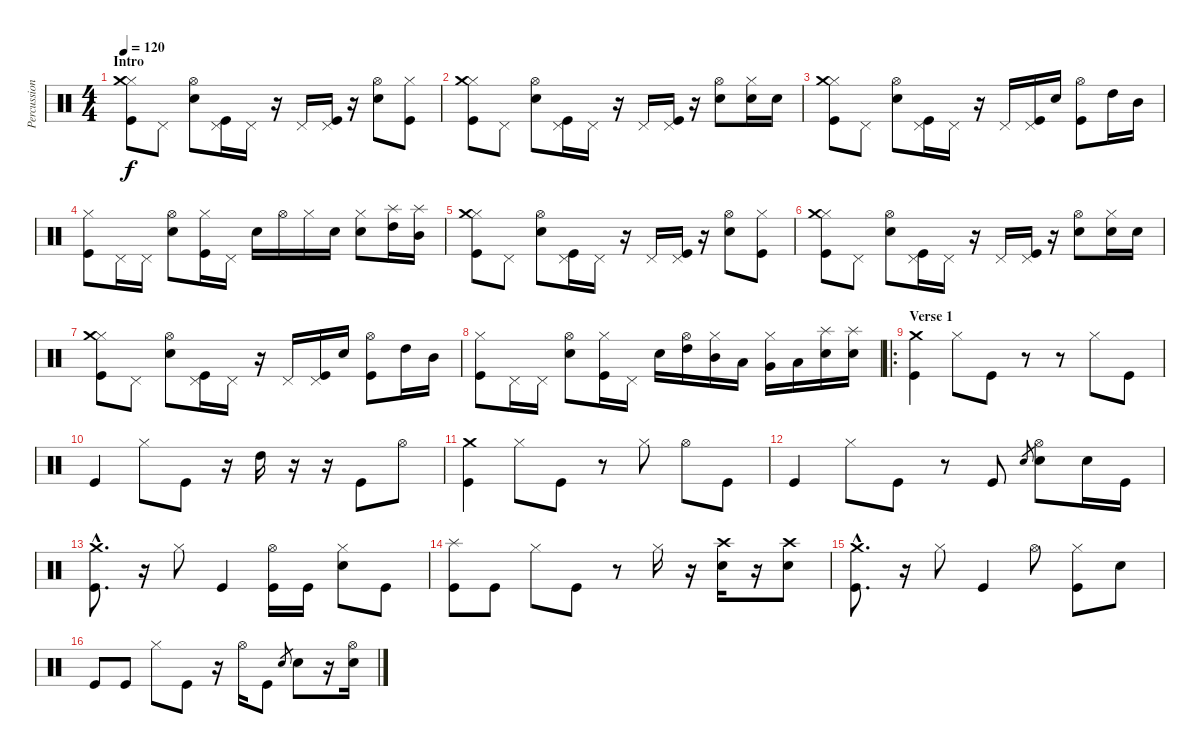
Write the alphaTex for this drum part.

\track ("Percussions" "Percussion") {instrument percussion}
\staff {score}
\articulation defaults
\ts (4 4)
\section ("" "Intro")
\tempo 120
\clef neutral
\ks c
("Hi-Hat (closed)" "Crash medium (hit)" "Kick (hit)").8{dy f} "Pedal Hi-Hat (hit)".8 ("Hi-Hat (open)" "Electric Snare (hit)").8 ("Pedal Hi-Hat (hit)" "Kick (hit)").16 "Pedal Hi-Hat (hit)".16 r.16 "Pedal Hi-Hat (hit)".16 ("Pedal Hi-Hat (hit)" "Kick (hit)").16 r.16 ("Hi-Hat (open)" "Electric Snare (hit)").8 ("Hi-Hat (closed)" "Kick (hit)").8 |
("Hi-Hat (closed)" "Crash medium (hit)" "Kick (hit)").8 "Pedal Hi-Hat (hit)".8 ("Hi-Hat (open)" "Electric Snare (hit)").8 ("Pedal Hi-Hat (hit)" "Kick (hit)").16 "Pedal Hi-Hat (hit)".16 r.16 "Pedal Hi-Hat (hit)".16 ("Pedal Hi-Hat (hit)" "Kick (hit)").16 r.16 ("Hi-Hat (open)" "Electric Snare (hit)").8 ("Hi-Hat (closed)" "Electric Snare (hit)").16 "Electric Snare (hit)".16 |
("Hi-Hat (closed)" "Crash medium (hit)" "Kick (hit)").8 "Pedal Hi-Hat (hit)".8 ("Hi-Hat (open)" "Electric Snare (hit)").8 ("Pedal Hi-Hat (hit)" "Kick (hit)").16 "Pedal Hi-Hat (hit)".16 r.16 "Pedal Hi-Hat (hit)".16 ("Pedal Hi-Hat (hit)" "Kick (hit)").16 "Electric Snare (hit)".16 ("Hi-Hat (open)" "Kick (hit)").8 "High Tom (hit)".16 "Mid Tom (hit)".16 |
("Hi-Hat (closed)" "Kick (hit)").8 "Pedal Hi-Hat (hit)".16 "Pedal Hi-Hat (hit)".16 ("Hi-Hat (open)" "Electric Snare (hit)").8 ("Hi-Hat (closed)" "Kick (hit)").16 "Pedal Hi-Hat (hit)".16 "Electric Snare (hit)".16 "Hi-Hat (open)".16 "Hi-Hat (closed)".16 "Electric Snare (hit)".16 ("Hi-Hat (closed)" "Electric Snare (hit)").8 ("Splash (hit)" "High Tom (hit)").16 ("Splash (hit)" "Mid Tom (hit)").16 |
("Hi-Hat (closed)" "Crash medium (hit)" "Kick (hit)").8 "Pedal Hi-Hat (hit)".8 ("Hi-Hat (open)" "Electric Snare (hit)").8 ("Pedal Hi-Hat (hit)" "Kick (hit)").16 "Pedal Hi-Hat (hit)".16 r.16 "Pedal Hi-Hat (hit)".16 ("Pedal Hi-Hat (hit)" "Kick (hit)").16 r.16 ("Hi-Hat (open)" "Electric Snare (hit)").8 ("Hi-Hat (closed)" "Kick (hit)").8 |
("Hi-Hat (closed)" "Crash medium (hit)" "Kick (hit)").8 "Pedal Hi-Hat (hit)".8 ("Hi-Hat (open)" "Electric Snare (hit)").8 ("Pedal Hi-Hat (hit)" "Kick (hit)").16 "Pedal Hi-Hat (hit)".16 r.16 "Pedal Hi-Hat (hit)".16 ("Pedal Hi-Hat (hit)" "Kick (hit)").16 r.16 ("Hi-Hat (open)" "Electric Snare (hit)").8 ("Hi-Hat (closed)" "Electric Snare (hit)").16 "Electric Snare (hit)".16 |
("Hi-Hat (closed)" "Crash medium (hit)" "Kick (hit)").8 "Pedal Hi-Hat (hit)".8 ("Hi-Hat (open)" "Electric Snare (hit)").8 ("Pedal Hi-Hat (hit)" "Kick (hit)").16 "Pedal Hi-Hat (hit)".16 r.16 "Pedal Hi-Hat (hit)".16 ("Pedal Hi-Hat (hit)" "Kick (hit)").16 "Electric Snare (hit)".16 ("Hi-Hat (open)" "Kick (hit)").8 "High Tom (hit)".16 "Mid Tom (hit)".16 |
("Hi-Hat (closed)" "Kick (hit)").8 "Pedal Hi-Hat (hit)".16 "Pedal Hi-Hat (hit)".16 ("Hi-Hat (open)" "Electric Snare (hit)").8 ("Hi-Hat (closed)" "Kick (hit)").16 "Pedal Hi-Hat (hit)".16 "Electric Snare (hit)".16 ("Hi-Hat (open)" "High Tom (hit)").16 ("Hi-Hat (closed)" "Mid Tom (hit)").16 "Low Tom (hit)".16 ("Hi-Hat (closed)" "Very Low Tom (hit)").16 "Low Floor Tom (hit)".16 ("Splash (hit)" "Electric Snare (hit)").16 ("Splash (hit)" "Electric Snare (hit)").16 |
\ro
\section ("" "Verse 1")
("Crash medium (hit)" "Kick (hit)").4 "Hi-Hat (closed)".8 "Kick (hit)".8 r.8 r.8 "Hi-Hat (closed)".8 "Kick (hit)".8 |
"Kick (hit)".4 "Hi-Hat (closed)".8 "Kick (hit)".8 r.16 "High Tom (hit)".16 r.16 r.16 "Kick (hit)".8 "Hi-Hat (open)".8 |
("Crash medium (hit)" "Kick (hit)").4 "Hi-Hat (closed)".8 "Kick (hit)".8 r.8 "Hi-Hat (closed)".8 "Hi-Hat (open)".8 "Kick (hit)".8 |
"Kick (hit)".4 "Hi-Hat (closed)".8 "Kick (hit)".8 r.8 "Kick (hit)".8 "Electric Snare (hit)".8{gr} ("Hi-Hat (open)" "Electric Snare (hit)").8 "Electric Snare (hit)".16 "Kick (hit)".16 |
("Crash medium (hit)"{hac} "Kick (hit)"{hac}).8{d} r.16 "Hi-Hat (closed)".8 "Kick (hit)".4 ("Hi-Hat (open)" "Kick (hit)").16 "Kick (hit)".16 ("Hi-Hat (closed)" "Electric Snare (hit)").8 "Kick (hit)".8 |
("Splash (hit)" "Kick (hit)").8 "Kick (hit)".8 "Hi-Hat (closed)".8 "Kick (hit)".8 r.8 "Hi-Hat (closed)".16 r.16 ("Crash high (hit)" "Electric Snare (hit)").16 r.16 ("Crash high (hit)" "Electric Snare (hit)").8 |
("Crash medium (hit)"{hac} "Kick (hit)"{hac}).8{d} r.16 "Hi-Hat (closed)".8 "Kick (hit)".4 "Hi-Hat (open)".8 ("Hi-Hat (closed)" "Kick (hit)").8 "Electric Snare (hit)".8 |
"Kick (hit)".8 "Kick (hit)".8 "Hi-Hat (closed)".8 "Kick (hit)".8 r.16 "Hi-Hat (open)".16 "Kick (hit)".8 "Electric Snare (hit)".8{gr} "Electric Snare (hit)".8 r.16 ("Hi-Hat (open)" "Electric Snare (hit)").16
